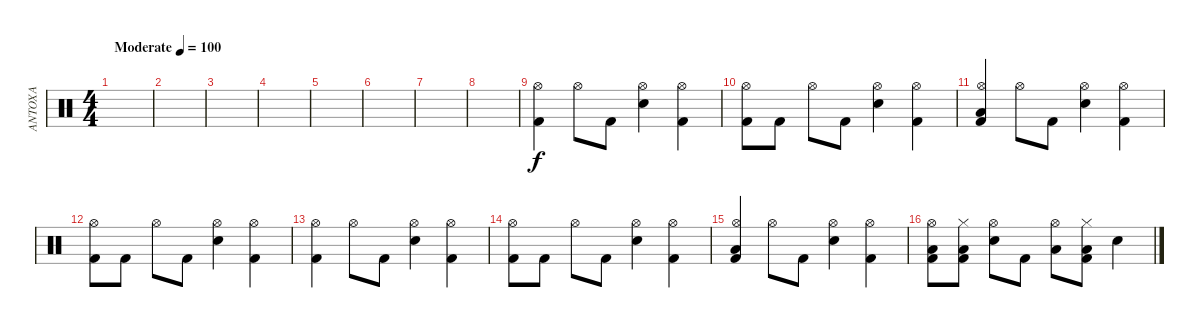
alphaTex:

\track ("ANTOXA" "ANTOXA") {instrument percussion}
\staff {score}
\articulation defaults
\ts (4 4)
\tempo (100 "Moderate")
\clef neutral
\ks c
|
|
|
|
|
|
|
|
("Kick (hit) 2" "Hi-Hat (open)").4 "Hi-Hat (open)".8 "Kick (hit) 2".8 ("Hi-Hat (open)" "Electric Snare (hit)").4 ("Kick (hit) 2" "Hi-Hat (open)").4 |
("Kick (hit) 2" "Hi-Hat (open)").8 "Kick (hit) 2".8 "Hi-Hat (open)".8 "Kick (hit) 2".8 ("Hi-Hat (open)" "Electric Snare (hit)").4 ("Kick (hit) 2" "Hi-Hat (open)").4 |
("Kick (hit) 2" "Hi-Hat (open)" "Low Floor Tom (hit)").4 "Hi-Hat (open)".8 "Kick (hit) 2".8 ("Hi-Hat (open)" "Electric Snare (hit)").4 ("Kick (hit) 2" "Hi-Hat (open)").4 |
("Kick (hit) 2" "Hi-Hat (open)").8 "Kick (hit) 2".8 "Hi-Hat (open)".8 "Kick (hit) 2".8 ("Hi-Hat (open)" "Electric Snare (hit)").4 ("Kick (hit) 2" "Hi-Hat (open)").4 |
("Kick (hit) 2" "Hi-Hat (open)").4 "Hi-Hat (open)".8 "Kick (hit) 2".8 ("Hi-Hat (open)" "Electric Snare (hit)").4 ("Kick (hit) 2" "Hi-Hat (open)").4 |
("Kick (hit) 2" "Hi-Hat (open)").8 "Kick (hit) 2".8 "Hi-Hat (open)".8 "Kick (hit) 2".8 ("Hi-Hat (open)" "Electric Snare (hit)").4 ("Kick (hit) 2" "Hi-Hat (open)").4 |
("Kick (hit) 2" "Hi-Hat (open)" "Low Floor Tom (hit)").4 "Hi-Hat (open)".8 "Kick (hit) 2".8 ("Hi-Hat (open)" "Electric Snare (hit)").4 ("Kick (hit) 2" "Hi-Hat (open)").4 |
("Kick (hit) 2" "Hi-Hat (open)" "Low Floor Tom (hit)").8 ("Kick (hit) 2" "Hi-Hat (closed)" "Low Floor Tom (hit)").8 ("Hi-Hat (open)" "Electric Snare (hit)").8 "Kick (hit) 2".8 ("Hi-Hat (open)" "Low Floor Tom (hit)").8 ("Kick (hit) 2" "Hi-Hat (closed)" "Low Floor Tom (hit)").8 "Electric Snare (hit)".4
